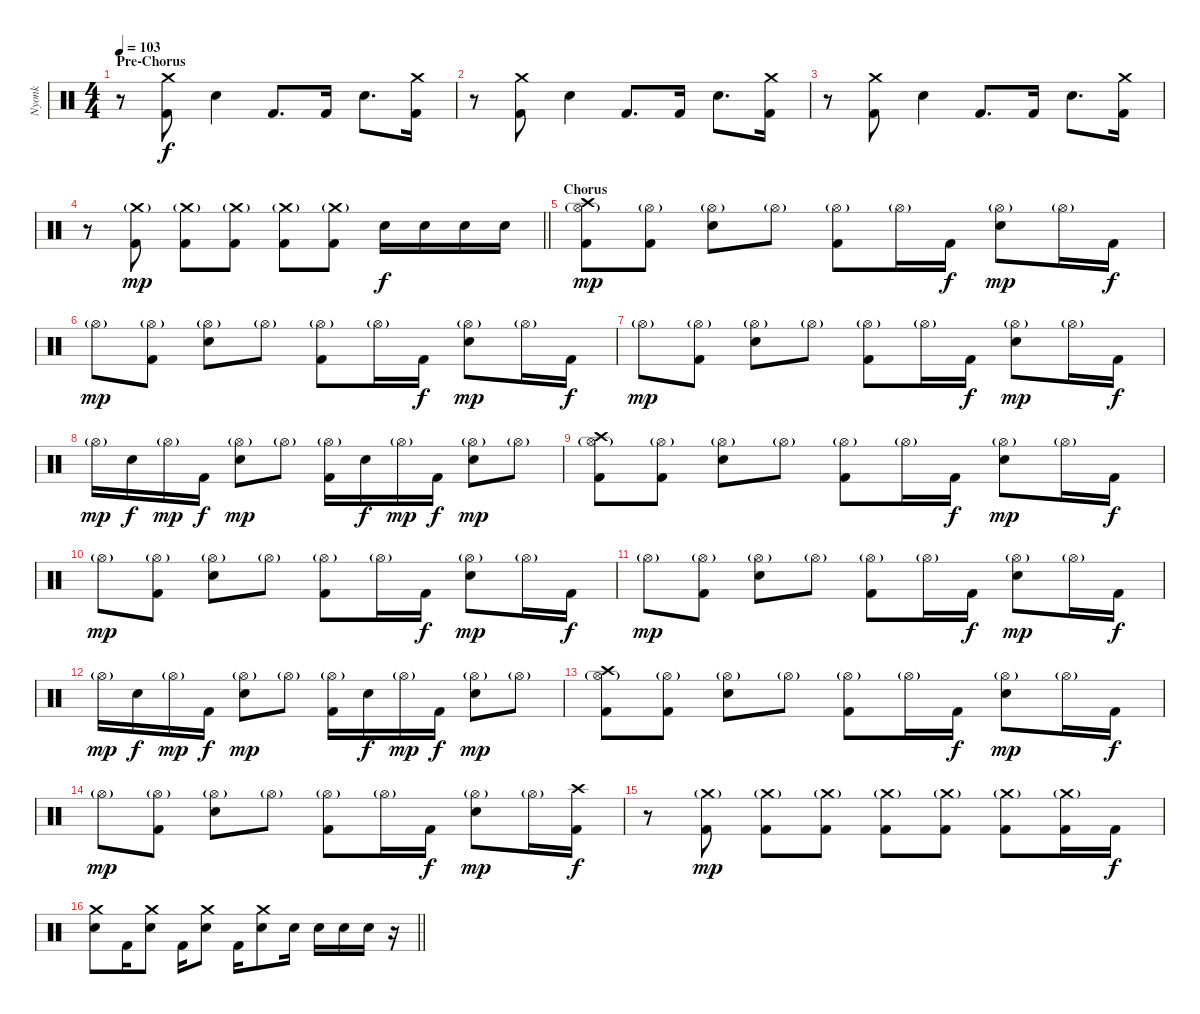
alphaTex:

\track ("Nyonk" "Nyonk") {instrument percussion}
\staff {score}
\articulation defaults
\ts (4 4)
\section ("" "Pre-Chorus")
\tempo 103
\clef neutral
\ks c
r.8{dy f} ("Crash medium (hit)" "Kick (hit) 2").8 "Electric Snare (hit)".4 "Kick (hit) 2".8{d} "Kick (hit) 2".16 "Electric Snare (hit)".8{d} ("Crash medium (hit)" "Kick (hit) 2").16 |
r.8 ("Crash medium (hit)" "Kick (hit) 2").8 "Electric Snare (hit)".4 "Kick (hit) 2".8{d} "Kick (hit) 2".16 "Electric Snare (hit)".8{d} ("Crash medium (hit)" "Kick (hit) 2").16 |
r.8 ("Crash medium (hit)" "Kick (hit) 2").8 "Electric Snare (hit)".4 "Kick (hit) 2".8{d} "Kick (hit) 2".16 "Electric Snare (hit)".8{d} ("Crash medium (hit)" "Kick (hit) 2").16 |
\barLineRight lightlight
r.8 ("Crash medium (hit)"{g} "Kick (hit) 2").8{dy mp} ("Crash medium (hit)"{g} "Kick (hit) 2").8 ("Crash medium (hit)"{g} "Kick (hit) 2").8 ("Crash medium (hit)"{g} "Kick (hit) 2").8 ("Crash medium (hit)"{g} "Kick (hit) 2").8 "Electric Snare (hit)".16{dy f} "Electric Snare (hit)".16 "Electric Snare (hit)".16 "Electric Snare (hit)".16 |
\section ("" "Chorus")
("Crash high (hit)" "Hi-Hat (open)"{g} "Kick (hit) 2").8{dy mp} ("Hi-Hat (open)"{g} "Kick (hit) 2").8 ("Hi-Hat (open)"{g} "Electric Snare (hit)").8 "Hi-Hat (open)"{g}.8 ("Hi-Hat (open)"{g} "Kick (hit) 2").8 "Hi-Hat (open)"{g}.16 "Kick (hit) 2".16{dy f} ("Hi-Hat (open)"{g} "Electric Snare (hit)").8{dy mp} "Hi-Hat (open)"{g}.16 "Kick (hit) 2".16{dy f} |
"Hi-Hat (open)"{g}.8{dy mp} ("Hi-Hat (open)"{g} "Kick (hit) 2").8 ("Hi-Hat (open)"{g} "Electric Snare (hit)").8 "Hi-Hat (open)"{g}.8 ("Hi-Hat (open)"{g} "Kick (hit) 2").8 "Hi-Hat (open)"{g}.16 "Kick (hit) 2".16{dy f} ("Hi-Hat (open)"{g} "Electric Snare (hit)").8{dy mp} "Hi-Hat (open)"{g}.16 "Kick (hit) 2".16{dy f} |
"Hi-Hat (open)"{g}.8{dy mp} ("Hi-Hat (open)"{g} "Kick (hit) 2").8 ("Hi-Hat (open)"{g} "Electric Snare (hit)").8 "Hi-Hat (open)"{g}.8 ("Hi-Hat (open)"{g} "Kick (hit) 2").8 "Hi-Hat (open)"{g}.16 "Kick (hit) 2".16{dy f} ("Hi-Hat (open)"{g} "Electric Snare (hit)").8{dy mp} "Hi-Hat (open)"{g}.16 "Kick (hit) 2".16{dy f} |
"Hi-Hat (open)"{g}.16{dy mp} "Electric Snare (hit)".16{dy f} "Hi-Hat (open)"{g}.16{dy mp} "Kick (hit) 2".16{dy f} ("Hi-Hat (open)"{g} "Electric Snare (hit)").8{dy mp} "Hi-Hat (open)"{g}.8 ("Hi-Hat (open)"{g} "Kick (hit) 2").16 "Electric Snare (hit)".16{dy f} "Hi-Hat (open)"{g}.16{dy mp} "Kick (hit) 2".16{dy f} ("Hi-Hat (open)"{g} "Electric Snare (hit)").8{dy mp} "Hi-Hat (open)"{g}.8 |
("Crash high (hit)" "Hi-Hat (open)"{g} "Kick (hit) 2").8 ("Hi-Hat (open)"{g} "Kick (hit) 2").8 ("Hi-Hat (open)"{g} "Electric Snare (hit)").8 "Hi-Hat (open)"{g}.8 ("Hi-Hat (open)"{g} "Kick (hit) 2").8 "Hi-Hat (open)"{g}.16 "Kick (hit) 2".16{dy f} ("Hi-Hat (open)"{g} "Electric Snare (hit)").8{dy mp} "Hi-Hat (open)"{g}.16 "Kick (hit) 2".16{dy f} |
"Hi-Hat (open)"{g}.8{dy mp} ("Hi-Hat (open)"{g} "Kick (hit) 2").8 ("Hi-Hat (open)"{g} "Electric Snare (hit)").8 "Hi-Hat (open)"{g}.8 ("Hi-Hat (open)"{g} "Kick (hit) 2").8 "Hi-Hat (open)"{g}.16 "Kick (hit) 2".16{dy f} ("Hi-Hat (open)"{g} "Electric Snare (hit)").8{dy mp} "Hi-Hat (open)"{g}.16 "Kick (hit) 2".16{dy f} |
"Hi-Hat (open)"{g}.8{dy mp} ("Hi-Hat (open)"{g} "Kick (hit) 2").8 ("Hi-Hat (open)"{g} "Electric Snare (hit)").8 "Hi-Hat (open)"{g}.8 ("Hi-Hat (open)"{g} "Kick (hit) 2").8 "Hi-Hat (open)"{g}.16 "Kick (hit) 2".16{dy f} ("Hi-Hat (open)"{g} "Electric Snare (hit)").8{dy mp} "Hi-Hat (open)"{g}.16 "Kick (hit) 2".16{dy f} |
"Hi-Hat (open)"{g}.16{dy mp} "Electric Snare (hit)".16{dy f} "Hi-Hat (open)"{g}.16{dy mp} "Kick (hit) 2".16{dy f} ("Hi-Hat (open)"{g} "Electric Snare (hit)").8{dy mp} "Hi-Hat (open)"{g}.8 ("Hi-Hat (open)"{g} "Kick (hit) 2").16 "Electric Snare (hit)".16{dy f} "Hi-Hat (open)"{g}.16{dy mp} "Kick (hit) 2".16{dy f} ("Hi-Hat (open)"{g} "Electric Snare (hit)").8{dy mp} "Hi-Hat (open)"{g}.8 |
("Crash high (hit)" "Hi-Hat (open)"{g} "Kick (hit) 2").8 ("Hi-Hat (open)"{g} "Kick (hit) 2").8 ("Hi-Hat (open)"{g} "Electric Snare (hit)").8 "Hi-Hat (open)"{g}.8 ("Hi-Hat (open)"{g} "Kick (hit) 2").8 "Hi-Hat (open)"{g}.16 "Kick (hit) 2".16{dy f} ("Hi-Hat (open)"{g} "Electric Snare (hit)").8{dy mp} "Hi-Hat (open)"{g}.16 "Kick (hit) 2".16{dy f} |
"Hi-Hat (open)"{g}.8{dy mp} ("Hi-Hat (open)"{g} "Kick (hit) 2").8 ("Hi-Hat (open)"{g} "Electric Snare (hit)").8 "Hi-Hat (open)"{g}.8 ("Hi-Hat (open)"{g} "Kick (hit) 2").8 "Hi-Hat (open)"{g}.16 "Kick (hit) 2".16{dy f} ("Hi-Hat (open)"{g} "Electric Snare (hit)").8{dy mp} "Hi-Hat (open)"{g}.16 ("Crash high (hit)" "Kick (hit) 2").16{dy f} |
r.8 ("Crash medium (hit)"{g} "Kick (hit) 2").8{dy mp} ("Crash medium (hit)"{g} "Kick (hit) 2").8 ("Crash medium (hit)"{g} "Kick (hit) 2").8 ("Crash medium (hit)"{g} "Kick (hit) 2").8 ("Crash medium (hit)"{g} "Kick (hit) 2").8 ("Crash medium (hit)"{g} "Kick (hit) 2").8 ("Crash medium (hit)"{g} "Kick (hit) 2").16 "Kick (hit) 2".16{dy f} |
\barLineRight lightlight
("Crash medium (hit)" "Electric Snare (hit)").8 "Kick (hit) 2".16 ("Crash medium (hit)" "Electric Snare (hit)").8 "Kick (hit) 2".16 ("Crash medium (hit)" "Electric Snare (hit)").8 "Kick (hit) 2".16 ("Crash medium (hit)" "Electric Snare (hit)").8 "Electric Snare (hit)".16 "Electric Snare (hit)".16 "Electric Snare (hit)".16 "Electric Snare (hit)".16 r.16
